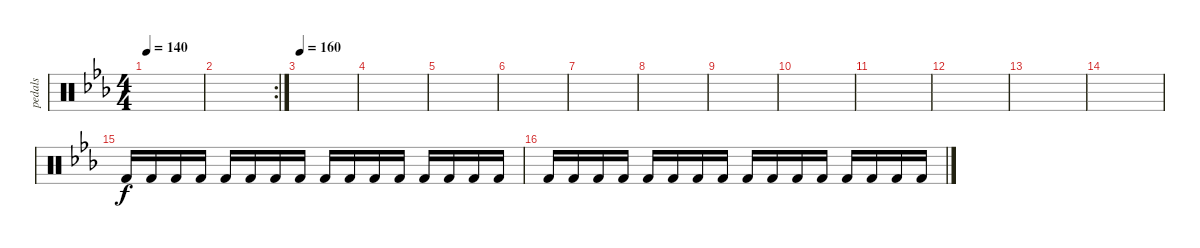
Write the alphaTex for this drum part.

\track ("pedals" "pedals") {instrument percussion}
\staff {score}
\articulation defaults
\ts (4 4)
\tempo 140
\clef neutral
\ks cminor
|
\rc 2
|
\tempo 160
|
|
|
|
|
|
|
|
|
|
|
|
"Kick (hit) 2".16 "Kick (hit) 2".16 "Kick (hit) 2".16 "Kick (hit) 2".16 "Kick (hit) 2".16 "Kick (hit) 2".16 "Kick (hit) 2".16 "Kick (hit) 2".16 "Kick (hit) 2".16 "Kick (hit) 2".16 "Kick (hit) 2".16 "Kick (hit) 2".16 "Kick (hit) 2".16 "Kick (hit) 2".16 "Kick (hit) 2".16 "Kick (hit) 2".16 |
"Kick (hit) 2".16 "Kick (hit) 2".16 "Kick (hit) 2".16 "Kick (hit) 2".16 "Kick (hit) 2".16 "Kick (hit) 2".16 "Kick (hit) 2".16 "Kick (hit) 2".16 "Kick (hit) 2".16 "Kick (hit) 2".16 "Kick (hit) 2".16 "Kick (hit) 2".16 "Kick (hit) 2".16 "Kick (hit) 2".16 "Kick (hit) 2".16 "Kick (hit) 2".16
